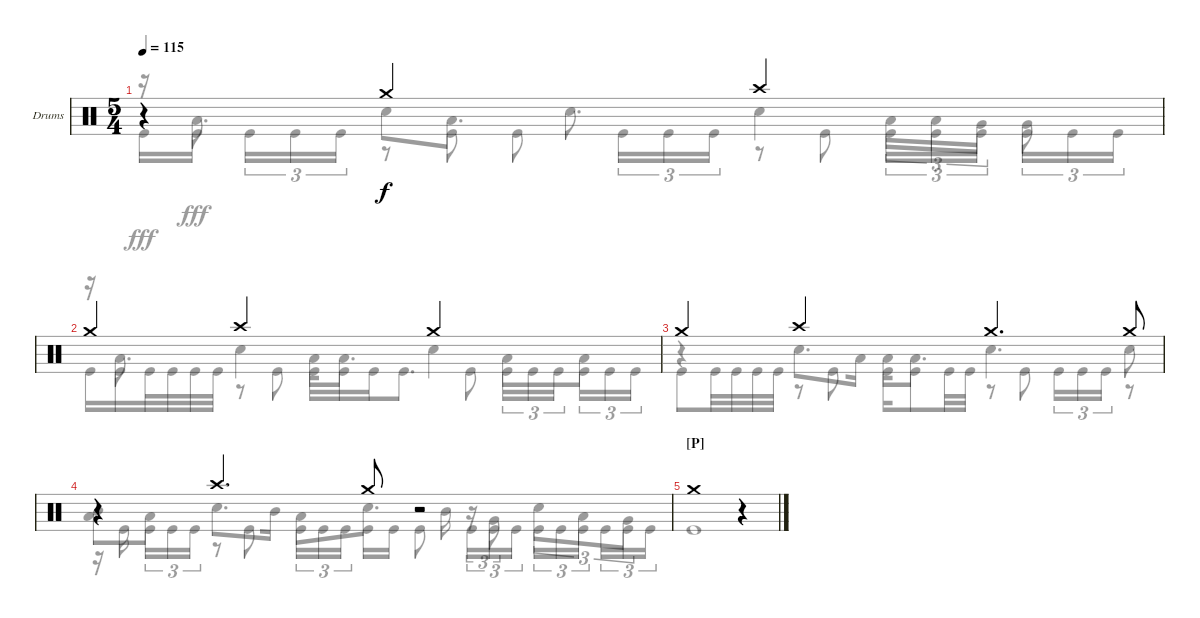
\defaultSystemsLayout 4
\bracketExtendMode groupsimilarinstruments
\firstSystemTrackNameOrientation horizontal
\otherSystemsTrackNameOrientation horizontal
\track ("Drumkit" "Drums") {instrument percussion}
\staff {score}
\articulation defaults
\voice
\ts (5 4)
\tempo 115
\clef neutral
\ks c
r.4{dy f} "Crash medium (hit)".2 "Crash high (hit)".2 |
"Crash medium (hit)".4 "Crash high (hit)".2 "Crash medium (hit)".2 |
"Crash medium (hit)".4 "Crash high (hit)".2 "Crash medium (hit)".4{d} "Crash medium (hit)".8 |
r.4 "Crash high (hit)".4{d} "Crash medium (hit)".8 r.2 |
\beaming (8 3 3 4)
\section ("P" "")
"Crash medium (hit)".1 r.4 |
|
|
|
|
|
|
|
|
|
|
\voice
\clef neutral
\ottava regular
\simile none
\ks c
r.16{dy fff} "Low Tom (hit)".8{d} "Snare (hit) 2".8 "Low Tom (hit)".8{d} "Snare (hit) 2".8{d} "Snare (hit) 2".4 "Low Tom (hit)".16{tu (3 2)} "Low Tom (hit)".16{tu (3 2)} "Very Low Tom (hit)".16{tu (3 2)} "Very Low Tom (hit)".8 |
r.16 "Low Tom (hit)".8{d} "Snare (hit) 2".4 "Low Tom (hit)".16 "Low Tom (hit)".8{d} "Snare (hit) 2".4 "Low Tom (hit)".8 "Low Tom (hit)".8 |
r.4 "Snare (hit) 2".8{d} "Low Tom (hit)".16 "Low Tom (hit)".16 "Low Tom (hit)".8{d} "Snare (hit) 2".4{d} "Snare (hit) 2".8 |
("Mid Tom (hit)" "Low Tom (hit)").8 "Low Tom (hit)".8 "Snare (hit) 2".8{d} "Mid Tom (hit)".16 "Low Tom (hit)".8 "Snare (hit) 2".8{d} "Mid Tom (hit)".16 r.16{tu (3 2)} "Very Low Tom (hit)".8{tu (3 2)} "Snare (hit) 2".8{tu (3 2)} "Low Tom (hit)".8{tu (3 2)} "Very Low Tom (hit)".8{tu (3 2)} |
|
|
|
|
|
|
|
|
|
|
|
\voice
\clef neutral
\ottava regular
\simile none
\ks c "Kick (hit)".16{dy fff} "Kick (hit)".16 "Kick (hit)".16{tu (3 2)} "Kick (hit)".16{tu (3 2)} "Kick (hit)".16{tu (3 2)}
r.8 "Kick (hit)".8 "Kick (hit)".8 "Kick (hit)".16{tu (3 2)} "Kick (hit)".16{tu (3 2)} "Kick (hit)".16{tu (3 2)} r.8 "Kick (hit)".8 "Kick (hit)".16{tu (3 2)} "Kick (hit)".16{tu (3 2)} "Kick (hit)".16{tu (3 2)} "Kick (hit)".16{tu (3 2)} "Kick (hit)".16{tu (3 2)} "Kick (hit)".16{tu (3 2)} |
"Kick (hit)".16 "Kick (hit)".16 "Kick (hit)".32 "Kick (hit)".32 "Kick (hit)".32 "Kick (hit)".32 r.8 "Kick (hit)".8 "Kick (hit)".16 "Kick (hit)".16 "Kick (hit)".16 "Kick (hit)".8{d} "Kick (hit)".8 "Kick (hit)".16{tu (3 2)} "Kick (hit)".16{tu (3 2)} "Kick (hit)".16{tu (3 2)} "Kick (hit)".16{tu (3 2)} "Kick (hit)".16{tu (3 2)} "Kick (hit)".16{tu (3 2)} |
"Kick (hit)".8 "Kick (hit)".32 "Kick (hit)".32 "Kick (hit)".32 "Kick (hit)".32 r.8 "Kick (hit)".8 "Kick (hit)".16 "Kick (hit)".8 "Kick (hit)".32 "Kick (hit)".32 r.8 "Kick (hit)".8 "Kick (hit)".16{tu (3 2)} "Kick (hit)".16{tu (3 2)} "Kick (hit)".16{tu (3 2)} r.8 |
r.16 "Kick (hit)".16 "Kick (hit)".16{tu (3 2)} "Kick (hit)".16{tu (3 2)} "Kick (hit)".16{tu (3 2)} r.8 "Kick (hit)".8 "Kick (hit)".16{tu (3 2)} "Kick (hit)".16{tu (3 2)} "Kick (hit)".16{tu (3 2)} "Kick (hit)".16 "Kick (hit)".16 "Kick (hit)".8 "Kick (hit)".16{tu (3 2)} "Kick (hit)".16{tu (3 2)} "Kick (hit)".16{tu (3 2)} "Kick (hit)".16{tu (3 2)} "Kick (hit)".16{tu (3 2)} "Kick (hit)".16{tu (3 2)} "Kick (hit)".16{tu (3 2)} "Kick (hit)".16{tu (3 2)} "Kick (hit)".16{tu (3 2)} |
"Kick (hit)".1 r.4 |
|
|
|
|
|
|
|
|
|
|
